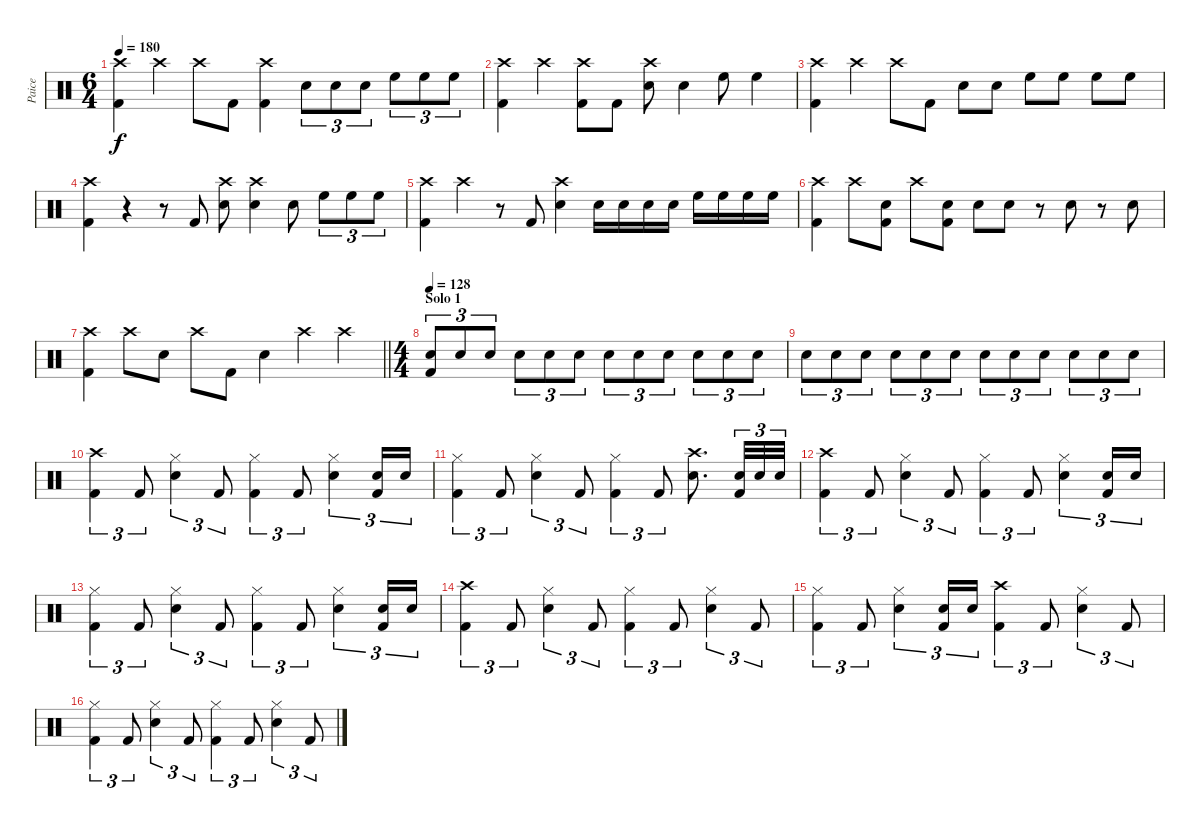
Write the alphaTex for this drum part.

\track ("Paice" "Paice") {instrument percussion}
\staff {score}
\articulation defaults
\ts (6 4)
\tempo 180
\clef neutral
\ks c
("Crash high (hit)" "Kick (hit) 2").4{dy f} "Crash high (hit)".4 "Crash high (hit)".8 "Kick (hit) 2".8 ("Crash high (hit)" "Kick (hit) 2").4 "Snare (hit) 2".8{tu (3 2)} "Snare (hit) 2".8{tu (3 2)} "Snare (hit) 2".8{tu (3 2)} "High Floor Tom (hit)".8{tu (3 2)} "High Floor Tom (hit)".8{tu (3 2)} "High Floor Tom (hit)".8{tu (3 2)} |
("Crash high (hit)" "Kick (hit) 2").4 "Crash high (hit)".4 ("Crash high (hit)" "Kick (hit) 2").8 "Kick (hit) 2".8 ("Crash high (hit)" "Snare (hit) 2").8 "Snare (hit) 2".4 "High Floor Tom (hit)".8 "High Floor Tom (hit)".4 |
("Crash high (hit)" "Kick (hit) 2").4 "Crash high (hit)".4 "Crash high (hit)".8 "Kick (hit) 2".8 "Snare (hit) 2".8 "Snare (hit) 2".8 "High Floor Tom (hit)".8 "High Floor Tom (hit)".8 "High Floor Tom (hit)".8 "High Floor Tom (hit)".8 |
("Crash high (hit)" "Kick (hit) 2").4 r.4 r.8 "Kick (hit) 2".8 ("Crash high (hit)" "Snare (hit) 2").8 ("Crash high (hit)" "Snare (hit) 2").4 "Snare (hit) 2".8 "High Floor Tom (hit)".8{tu (3 2)} "High Floor Tom (hit)".8{tu (3 2)} "High Floor Tom (hit)".8{tu (3 2)} |
("Crash high (hit)" "Kick (hit) 2").4 "Crash high (hit)".4 r.8 "Kick (hit) 2".8 ("Crash high (hit)" "Snare (hit) 2").4 "Snare (hit) 2".16 "Snare (hit) 2".16 "Snare (hit) 2".16 "Snare (hit) 2".16 "High Floor Tom (hit)".16 "High Floor Tom (hit)".16 "High Floor Tom (hit)".16 "High Floor Tom (hit)".16 |
("Crash high (hit)" "Kick (hit) 2").4 "Crash high (hit)".8 ("Snare (hit) 2" "Kick (hit) 2").8 "Crash high (hit)".8 ("Snare (hit) 2" "Kick (hit) 2").8 "Snare (hit) 2".8 "Snare (hit) 2".8 r.8 "Snare (hit) 2".8 r.8 "Snare (hit) 2".8 |
\barLineRight lightlight
("Crash high (hit)" "Kick (hit) 2").4 "Crash high (hit)".8 "Snare (hit) 2".8 "Crash high (hit)".8 "Kick (hit) 2".8 "Snare (hit) 2".4 "Crash high (hit)".4 "Crash high (hit)".4 |
\ts (4 4)
\section ("" "Solo 1")
\tempo 128
("Snare (hit) 2" "Kick (hit) 2").8{tu (3 2) volume 16} "Snare (hit) 2".8{tu (3 2)} "Snare (hit) 2".8{tu (3 2)} "Snare (hit) 2".8{tu (3 2)} "Snare (hit) 2".8{tu (3 2)} "Snare (hit) 2".8{tu (3 2)} "Snare (hit) 2".8{tu (3 2)} "Snare (hit) 2".8{tu (3 2)} "Snare (hit) 2".8{tu (3 2)} "Snare (hit) 2".8{tu (3 2)} "Snare (hit) 2".8{tu (3 2)} "Snare (hit) 2".8{tu (3 2)} |
"Snare (hit) 2".8{tu (3 2)} "Snare (hit) 2".8{tu (3 2)} "Snare (hit) 2".8{tu (3 2)} "Snare (hit) 2".8{tu (3 2)} "Snare (hit) 2".8{tu (3 2)} "Snare (hit) 2".8{tu (3 2)} "Snare (hit) 2".8{tu (3 2)} "Snare (hit) 2".8{tu (3 2)} "Snare (hit) 2".8{tu (3 2)} "Snare (hit) 2".8{tu (3 2)} "Snare (hit) 2".8{tu (3 2)} "Snare (hit) 2".8{tu (3 2)} |
("Crash high (hit)" "Kick (hit) 2").4{tu (3 2) volume 9} "Kick (hit) 2".8{tu (3 2)} ("Hi-Hat (closed)" "Snare (hit) 2").4{tu (3 2)} "Kick (hit) 2".8{tu (3 2)} ("Hi-Hat (closed)" "Kick (hit) 2").4{tu (3 2)} "Kick (hit) 2".8{tu (3 2)} ("Hi-Hat (closed)" "Snare (hit) 2").4{tu (3 2)} ("Snare (hit) 2" "Kick (hit) 2").16{tu (3 2)} "Snare (hit) 2".16{tu (3 2)} |
("Hi-Hat (closed)" "Kick (hit) 2").4{tu (3 2)} "Kick (hit) 2".8{tu (3 2)} ("Hi-Hat (closed)" "Snare (hit) 2").4{tu (3 2)} "Kick (hit) 2".8{tu (3 2)} ("Hi-Hat (closed)" "Kick (hit) 2").4{tu (3 2)} "Kick (hit) 2".8{tu (3 2)} ("Crash high (hit)" "Snare (hit) 2").8{d} ("Snare (hit) 2" "Kick (hit) 2").32{tu (3 2)} "Snare (hit) 2".32{tu (3 2)} "Snare (hit) 2".32{tu (3 2)} |
("Crash high (hit)" "Kick (hit) 2").4{tu (3 2)} "Kick (hit) 2".8{tu (3 2)} ("Hi-Hat (closed)" "Snare (hit) 2").4{tu (3 2)} "Kick (hit) 2".8{tu (3 2)} ("Hi-Hat (closed)" "Kick (hit) 2").4{tu (3 2)} "Kick (hit) 2".8{tu (3 2)} ("Hi-Hat (closed)" "Snare (hit) 2").4{tu (3 2)} ("Snare (hit) 2" "Kick (hit) 2").16{tu (3 2)} "Snare (hit) 2".16{tu (3 2)} |
("Hi-Hat (closed)" "Kick (hit) 2").4{tu (3 2)} "Kick (hit) 2".8{tu (3 2)} ("Hi-Hat (closed)" "Snare (hit) 2").4{tu (3 2)} "Kick (hit) 2".8{tu (3 2)} ("Hi-Hat (closed)" "Kick (hit) 2").4{tu (3 2)} "Kick (hit) 2".8{tu (3 2)} ("Hi-Hat (closed)" "Snare (hit) 2").4{tu (3 2)} ("Snare (hit) 2" "Kick (hit) 2").16{tu (3 2)} "Snare (hit) 2".16{tu (3 2)} |
("Crash high (hit)" "Kick (hit) 2").4{tu (3 2)} "Kick (hit) 2".8{tu (3 2)} ("Hi-Hat (closed)" "Snare (hit) 2").4{tu (3 2)} "Kick (hit) 2".8{tu (3 2)} ("Hi-Hat (closed)" "Kick (hit) 2").4{tu (3 2)} "Kick (hit) 2".8{tu (3 2)} ("Hi-Hat (closed)" "Snare (hit) 2").4{tu (3 2)} "Kick (hit) 2".8{tu (3 2)} |
("Hi-Hat (closed)" "Kick (hit) 2").4{tu (3 2)} "Kick (hit) 2".8{tu (3 2)} ("Hi-Hat (closed)" "Snare (hit) 2").4{tu (3 2)} ("Snare (hit) 2" "Kick (hit) 2").16{tu (3 2)} "Snare (hit) 2".16{tu (3 2)} ("Crash high (hit)" "Kick (hit) 2").4{tu (3 2)} "Kick (hit) 2".8{tu (3 2)} ("Hi-Hat (closed)" "Snare (hit) 2").4{tu (3 2)} "Kick (hit) 2".8{tu (3 2)} |
("Hi-Hat (closed)" "Kick (hit) 2").4{tu (3 2)} "Kick (hit) 2".8{tu (3 2)} ("Hi-Hat (closed)" "Snare (hit) 2").4{tu (3 2)} "Kick (hit) 2".8{tu (3 2)} ("Hi-Hat (closed)" "Kick (hit) 2").4{tu (3 2)} "Kick (hit) 2".8{tu (3 2)} ("Hi-Hat (closed)" "Snare (hit) 2").4{tu (3 2)} "Kick (hit) 2".8{tu (3 2)}
